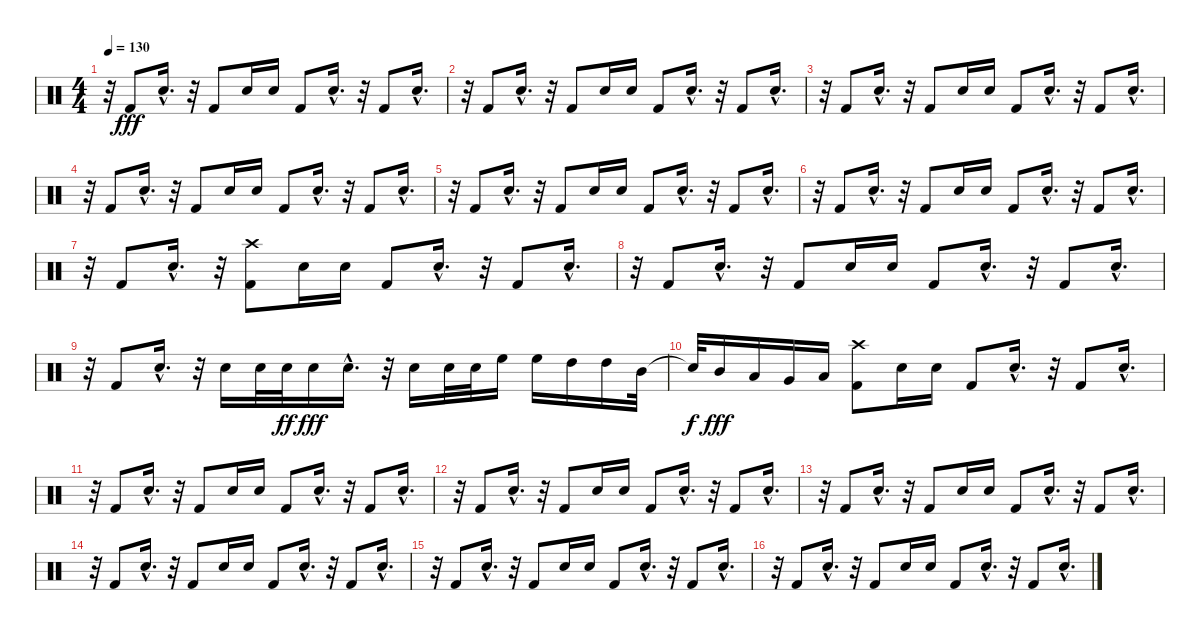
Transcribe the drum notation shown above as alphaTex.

\track "" {instrument percussion}
\staff {score}
\articulation defaults
\ts (4 4)
\tempo 130
\clef neutral
\ks c
r.32{dy fff} "Kick (hit) 2".8 "Electric Snare (hit)"{hac}.16{d} r.32 "Kick (hit) 2".8 "Electric Snare (hit)".16 "Electric Snare (hit)".16 "Kick (hit) 2".8 "Electric Snare (hit)"{hac}.16{d} r.32 "Kick (hit) 2".8 "Electric Snare (hit)"{hac}.16{d} |
r.32 "Kick (hit) 2".8 "Electric Snare (hit)"{hac}.16{d} r.32 "Kick (hit) 2".8 "Electric Snare (hit)".16 "Electric Snare (hit)".16 "Kick (hit) 2".8 "Electric Snare (hit)"{hac}.16{d} r.32 "Kick (hit) 2".8 "Electric Snare (hit)"{hac}.16{d} |
r.32 "Kick (hit) 2".8 "Electric Snare (hit)"{hac}.16{d} r.32 "Kick (hit) 2".8 "Electric Snare (hit)".16 "Electric Snare (hit)".16 "Kick (hit) 2".8 "Electric Snare (hit)"{hac}.16{d} r.32 "Kick (hit) 2".8 "Electric Snare (hit)"{hac}.16{d} |
r.32 "Kick (hit) 2".8 "Electric Snare (hit)"{hac}.16{d} r.32 "Kick (hit) 2".8 "Electric Snare (hit)".16 "Electric Snare (hit)".16 "Kick (hit) 2".8 "Electric Snare (hit)"{hac}.16{d} r.32 "Kick (hit) 2".8 "Electric Snare (hit)"{hac}.16{d} |
r.32 "Kick (hit) 2".8 "Electric Snare (hit)"{hac}.16{d} r.32 "Kick (hit) 2".8 "Electric Snare (hit)".16 "Electric Snare (hit)".16 "Kick (hit) 2".8 "Electric Snare (hit)"{hac}.16{d} r.32 "Kick (hit) 2".8 "Electric Snare (hit)"{hac}.16{d} |
r.32 "Kick (hit) 2".8 "Electric Snare (hit)"{hac}.16{d} r.32 "Kick (hit) 2".8 "Electric Snare (hit)".16 "Electric Snare (hit)".16 "Kick (hit) 2".8 "Electric Snare (hit)"{hac}.16{d} r.32 "Kick (hit) 2".8 "Electric Snare (hit)"{hac}.16{d} |
r.32 "Kick (hit) 2".8 "Electric Snare (hit)"{hac}.16{d} r.32 ("Crash high (hit)" "Kick (hit) 2").8 "Electric Snare (hit)".16 "Electric Snare (hit)".16 "Kick (hit) 2".8 "Electric Snare (hit)"{hac}.16{d} r.32 "Kick (hit) 2".8 "Electric Snare (hit)"{hac}.16{d} |
r.32 "Kick (hit) 2".8 "Electric Snare (hit)"{hac}.16{d} r.32 "Kick (hit) 2".8 "Electric Snare (hit)".16 "Electric Snare (hit)".16 "Kick (hit) 2".8 "Electric Snare (hit)"{hac}.16{d} r.32 "Kick (hit) 2".8 "Electric Snare (hit)"{hac}.16{d} |
r.32 "Kick (hit) 2".8 "Electric Snare (hit)"{hac}.16{d} r.32 "Electric Snare (hit)".16 "Electric Snare (hit)".32 "Electric Snare (hit)".32{dy ff} "Electric Snare (hit)".16{dy fff} "Electric Snare (hit)"{hac}.16{d} r.32 "Electric Snare (hit)".16 "Electric Snare (hit)".32 "Electric Snare (hit)".32 "High Floor Tom (hit)".16 "High Floor Tom (hit)".16 "High Tom (hit)".16 "High Tom (hit)".16 "Mid Tom (hit)".32 |
"Snare (hit)"{t}.32{dy f} "Mid Tom (hit)".16{dy fff} "Low Tom (hit)".16 "Very Low Tom (hit)".16 "Low Floor Tom (hit)".16 ("Crash high (hit)" "Kick (hit) 2").8 "Electric Snare (hit)".16 "Electric Snare (hit)".16 "Kick (hit) 2".8 "Electric Snare (hit)"{hac}.16{d} r.32 "Kick (hit) 2".8 "Electric Snare (hit)"{hac}.16{d} |
r.32 "Kick (hit) 2".8 "Electric Snare (hit)"{hac}.16{d} r.32 "Kick (hit) 2".8 "Electric Snare (hit)".16 "Electric Snare (hit)".16 "Kick (hit) 2".8 "Electric Snare (hit)"{hac}.16{d} r.32 "Kick (hit) 2".8 "Electric Snare (hit)"{hac}.16{d} |
r.32 "Kick (hit) 2".8 "Electric Snare (hit)"{hac}.16{d} r.32 "Kick (hit) 2".8 "Electric Snare (hit)".16 "Electric Snare (hit)".16 "Kick (hit) 2".8 "Electric Snare (hit)"{hac}.16{d} r.32 "Kick (hit) 2".8 "Electric Snare (hit)"{hac}.16{d} |
r.32 "Kick (hit) 2".8 "Electric Snare (hit)"{hac}.16{d} r.32 "Kick (hit) 2".8 "Electric Snare (hit)".16 "Electric Snare (hit)".16 "Kick (hit) 2".8 "Electric Snare (hit)"{hac}.16{d} r.32 "Kick (hit) 2".8 "Electric Snare (hit)"{hac}.16{d} |
r.32 "Kick (hit) 2".8 "Electric Snare (hit)"{hac}.16{d} r.32 "Kick (hit) 2".8 "Electric Snare (hit)".16 "Electric Snare (hit)".16 "Kick (hit) 2".8 "Electric Snare (hit)"{hac}.16{d} r.32 "Kick (hit) 2".8 "Electric Snare (hit)"{hac}.16{d} |
r.32 "Kick (hit) 2".8 "Electric Snare (hit)"{hac}.16{d} r.32 "Kick (hit) 2".8 "Electric Snare (hit)".16 "Electric Snare (hit)".16 "Kick (hit) 2".8 "Electric Snare (hit)"{hac}.16{d} r.32 "Kick (hit) 2".8 "Electric Snare (hit)"{hac}.16{d} |
r.32 "Kick (hit) 2".8 "Electric Snare (hit)"{hac}.16{d} r.32 "Kick (hit) 2".8 "Electric Snare (hit)".16 "Electric Snare (hit)".16 "Kick (hit) 2".8 "Electric Snare (hit)"{hac}.16{d} r.32 "Kick (hit) 2".8 "Electric Snare (hit)"{hac}.16{d}
